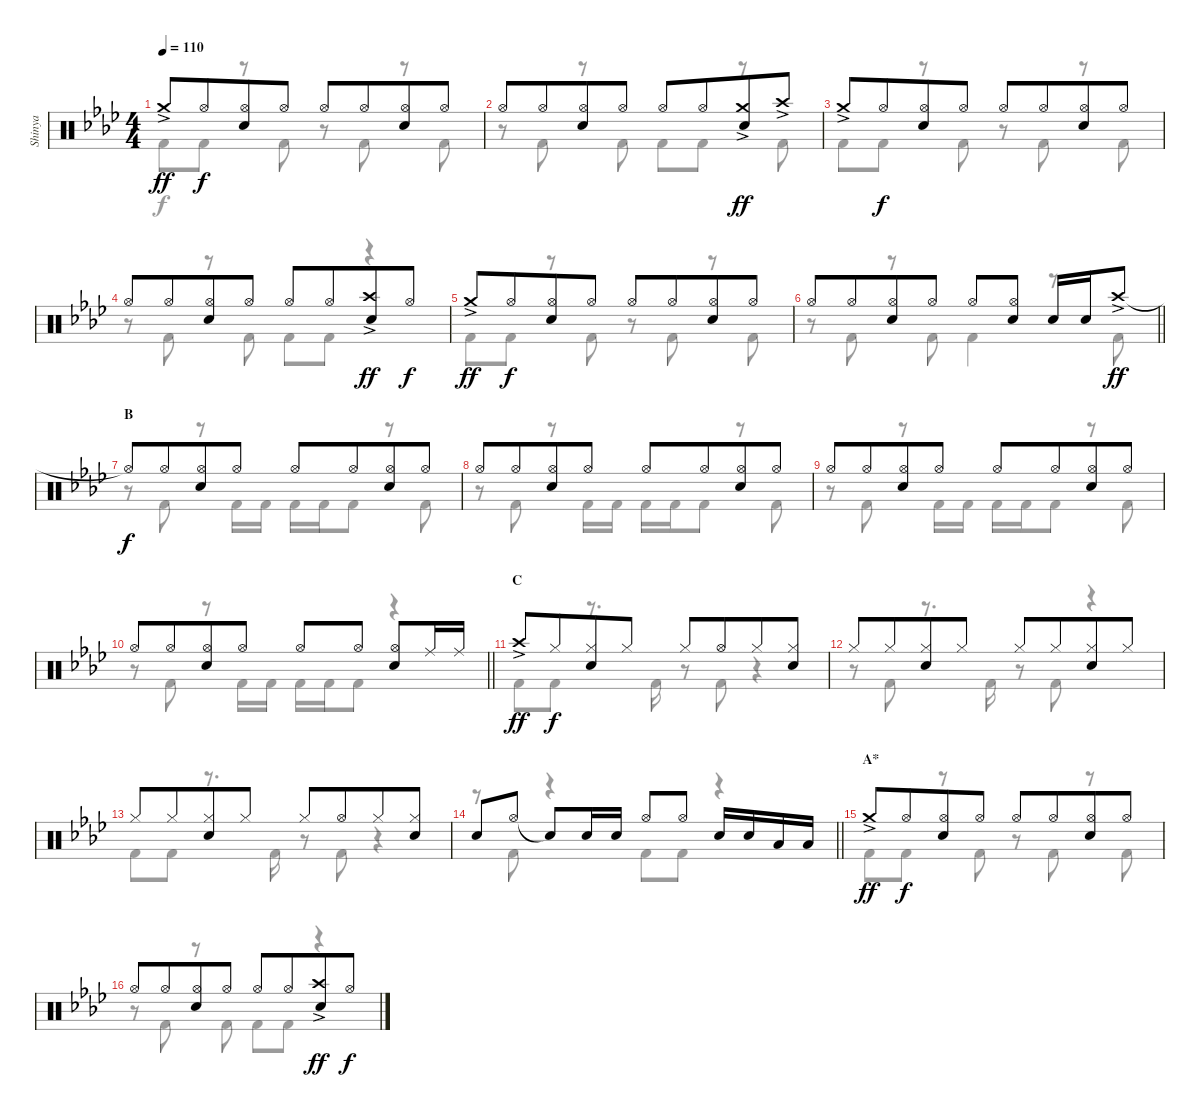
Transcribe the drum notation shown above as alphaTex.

\track ("Shinya" "Shinya") {instrument percussion}
\staff {score}
\articulation defaults
\voice
\ts (4 4)
\tempo 110
\clef neutral
\ks fminor "Crash medium (hit)"{ac}.8{dy ff} "Hi-Hat (open)".8{dy f beam merge}
("Hi-Hat (open)" "Snare (hit) 2").8 "Hi-Hat (open)".8 "Hi-Hat (open)".8 "Hi-Hat (open)".8{beam merge} ("Hi-Hat (open)" "Snare (hit) 2").8 "Hi-Hat (open)".8 |
"Hi-Hat (open)".8 "Hi-Hat (open)".8{beam merge} ("Hi-Hat (open)" "Snare (hit) 2").8 "Hi-Hat (open)".8 "Hi-Hat (open)".8 "Hi-Hat (open)".8{beam merge} ("Crash medium (hit)"{ac} "Snare (hit) 2").8{dy ff} "Crash high (hit)"{ac}.8 |
"Crash medium (hit)"{ac}.8 "Hi-Hat (open)".8{dy f beam merge} ("Hi-Hat (open)" "Snare (hit) 2").8 "Hi-Hat (open)".8 "Hi-Hat (open)".8 "Hi-Hat (open)".8{beam merge} ("Hi-Hat (open)" "Snare (hit) 2").8 "Hi-Hat (open)".8 |
"Hi-Hat (open)".8 "Hi-Hat (open)".8{beam merge} ("Hi-Hat (open)" "Snare (hit) 2").8 "Hi-Hat (open)".8 "Hi-Hat (open)".8 "Hi-Hat (open)".8{beam merge} ("Crash high (hit)"{ac} "Snare (hit) 2").8{dy ff} "Hi-Hat (open)".8{dy f} |
"Crash medium (hit)"{ac}.8{dy ff} "Hi-Hat (open)".8{dy f beam merge} ("Hi-Hat (open)" "Snare (hit) 2").8 "Hi-Hat (open)".8 "Hi-Hat (open)".8 "Hi-Hat (open)".8{beam merge} ("Hi-Hat (open)" "Snare (hit) 2").8 "Hi-Hat (open)".8 |
\barLineRight lightlight "Hi-Hat (open)".8 "Hi-Hat (open)".8{beam merge}
("Hi-Hat (open)" "Snare (hit) 2").8 "Hi-Hat (open)".8 "Hi-Hat (open)".8 ("Hi-Hat (open)" "Snare (hit) 2").8 "Snare (hit) 2".16 "Snare (hit) 2".16 "Crash high (hit)"{ac}.8{dy ff} |
\section ("" "B")
"Hi-Hat (open)"{t}.8{dy f} "Hi-Hat (open)".8{beam merge} ("Hi-Hat (open)" "Snare (hit) 2").8 "Hi-Hat (open)".8 "Hi-Hat (open)".8 "Hi-Hat (open)".8{beam merge} ("Hi-Hat (open)" "Snare (hit) 2").8 "Hi-Hat (open)".8 |
"Hi-Hat (open)".8 "Hi-Hat (open)".8{beam merge} ("Hi-Hat (open)" "Snare (hit) 2").8 "Hi-Hat (open)".8 "Hi-Hat (open)".8 "Hi-Hat (open)".8{beam merge} ("Hi-Hat (open)" "Snare (hit) 2").8 "Hi-Hat (open)".8 |
"Hi-Hat (open)".8 "Hi-Hat (open)".8{beam merge} ("Hi-Hat (open)" "Snare (hit) 2").8 "Hi-Hat (open)".8 "Hi-Hat (open)".8 "Hi-Hat (open)".8{beam merge} ("Hi-Hat (open)" "Snare (hit) 2").8 "Hi-Hat (open)".8 |
\barLineRight lightlight "Hi-Hat (open)".8 "Hi-Hat (open)".8{beam merge}
("Hi-Hat (open)" "Snare (hit) 2").8 "Hi-Hat (open)".8 "Hi-Hat (open)".8 "Hi-Hat (open)".8 ("Hi-Hat (open)" "Snare (hit) 2").8 "Ride (middle)".16 "Ride (middle)".16 |
\section ("" "C")
"Crash high (hit)"{ac}.8{dy ff} "Hi-Hat (closed)".8{dy f beam merge} ("Hi-Hat (closed)" "Snare (hit) 2").8 "Hi-Hat (closed)".8 "Hi-Hat (closed)".8 "Hi-Hat (open)".8{beam merge} "Hi-Hat (closed)".8 ("Hi-Hat (closed)" "Snare (hit) 2").8 |
"Hi-Hat (closed)".8 "Hi-Hat (closed)".8{beam merge} ("Hi-Hat (closed)" "Snare (hit) 2").8 "Hi-Hat (closed)".8 "Hi-Hat (closed)".8 "Hi-Hat (closed)".8{beam merge} ("Hi-Hat (closed)" "Snare (hit) 2").8 "Hi-Hat (closed)".8 |
"Hi-Hat (closed)".8 "Hi-Hat (closed)".8{beam merge} ("Hi-Hat (closed)" "Snare (hit) 2").8 "Hi-Hat (closed)".8 "Hi-Hat (closed)".8 "Hi-Hat (open)".8{beam merge} "Hi-Hat (closed)".8 ("Hi-Hat (closed)" "Snare (hit) 2").8 |
\barLineRight lightlight "Snare (hit) 2".8 "Hi-Hat (open)".8 "Snare (hit)"{t}.8 "Snare (hit) 2".16 "Snare (hit) 2".16 "Hi-Hat (open)".8 "Hi-Hat (open)".8 "Snare (hit) 2".16 "Snare (hit) 2".16 "Low Tom (hit)".16 "Low Tom (hit)".16
|
\section ("" "A*")
"Crash medium (hit)"{ac}.8{dy ff} "Hi-Hat (open)".8{dy f beam merge} ("Hi-Hat (open)" "Snare (hit) 2").8 "Hi-Hat (open)".8 "Hi-Hat (open)".8 "Hi-Hat (open)".8{beam merge} ("Hi-Hat (open)" "Snare (hit) 2").8 "Hi-Hat (open)".8 |
"Hi-Hat (open)".8 "Hi-Hat (open)".8{beam merge} ("Hi-Hat (open)" "Snare (hit) 2").8 "Hi-Hat (open)".8 "Hi-Hat (open)".8 "Hi-Hat (open)".8{beam merge} ("Crash high (hit)"{ac} "Snare (hit) 2").8{dy ff} "Hi-Hat (open)".8{dy f}
\voice
\clef neutral
\ottava regular
\simile none
\ks fminor "Kick (hit) 2".8{dy f} "Kick (hit) 2".8
r.8 "Kick (hit) 2".8 r.8 "Kick (hit) 2".8 r.8 "Kick (hit) 2".8 |
r.8 "Kick (hit) 2".8 r.8 "Kick (hit) 2".8 "Kick (hit) 2".8 "Kick (hit) 2".8 r.8 "Kick (hit) 2".8 |
"Kick (hit) 2".8 "Kick (hit) 2".8 r.8 "Kick (hit) 2".8 r.8 "Kick (hit) 2".8 r.8 "Kick (hit) 2".8 |
r.8 "Kick (hit) 2".8 r.8 "Kick (hit) 2".8 "Kick (hit) 2".8 "Kick (hit) 2".8 r.4 |
"Kick (hit) 2".8 "Kick (hit) 2".8 r.8 "Kick (hit) 2".8 r.8 "Kick (hit) 2".8 r.8 "Kick (hit) 2".8 |
\barLineRight lightlight
r.8 "Kick (hit) 2".8 r.8 "Kick (hit) 2".8 "Kick (hit) 2".4 r.8 "Kick (hit) 2".8 |
r.8 "Kick (hit) 2".8 r.8 "Kick (hit) 2".16 "Kick (hit) 2".16 "Kick (hit) 2".16 "Kick (hit) 2".16 "Kick (hit) 2".8 r.8 "Kick (hit) 2".8 |
r.8 "Kick (hit) 2".8 r.8 "Kick (hit) 2".16 "Kick (hit) 2".16 "Kick (hit) 2".16 "Kick (hit) 2".16 "Kick (hit) 2".8 r.8 "Kick (hit) 2".8 |
r.8 "Kick (hit) 2".8 r.8 "Kick (hit) 2".16 "Kick (hit) 2".16 "Kick (hit) 2".16 "Kick (hit) 2".16 "Kick (hit) 2".8 r.8 "Kick (hit) 2".8 |
\barLineRight lightlight
r.8 "Kick (hit) 2".8 r.8 "Kick (hit) 2".16 "Kick (hit) 2".16 "Kick (hit) 2".16 "Kick (hit) 2".16 "Kick (hit) 2".8 r.4 |
"Kick (hit) 2".8 "Kick (hit) 2".8 r.8{d} "Kick (hit) 2".16 r.8 "Kick (hit) 2".8 r.4 |
r.8 "Kick (hit) 2".8 r.8{d} "Kick (hit) 2".16 r.8 "Kick (hit) 2".8 r.4 |
"Kick (hit) 2".8 "Kick (hit) 2".8 r.8{d} "Kick (hit) 2".16 r.8 "Kick (hit) 2".8 r.4 |
\barLineRight lightlight
r.8 "Kick (hit) 2".8 r.4 "Kick (hit) 2".8 "Kick (hit) 2".8 r.4 |
"Kick (hit) 2".8 "Kick (hit) 2".8 r.8 "Kick (hit) 2".8 r.8 "Kick (hit) 2".8 r.8 "Kick (hit) 2".8 |
r.8 "Kick (hit) 2".8 r.8 "Kick (hit) 2".8 "Kick (hit) 2".8 "Kick (hit) 2".8 r.4
